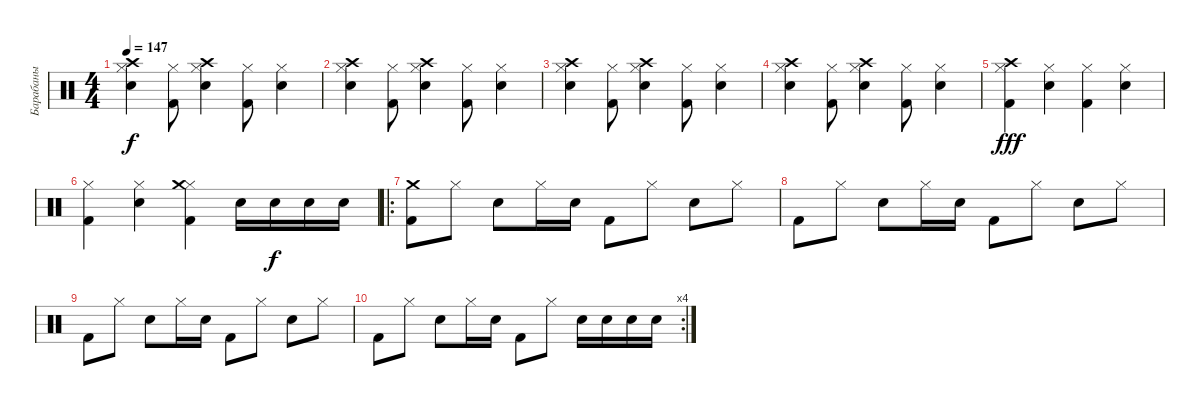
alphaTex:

\track ("Барабаны" "Барабаны") {instrument percussion}
\staff {score}
\articulation defaults
\ts (4 4)
\tempo 147
\clef neutral
\ks c
("Crash high (hit)" "Electric Snare (hit)" "Hi-Hat (closed)").4{dy f} ("Kick (hit) 2" "Hi-Hat (closed)").8 ("Crash high (hit)" "Electric Snare (hit)" "Hi-Hat (closed)").4 ("Kick (hit) 2" "Hi-Hat (closed)").8 ("Electric Snare (hit)" "Hi-Hat (closed)").4 |
("Crash high (hit)" "Electric Snare (hit)" "Hi-Hat (closed)").4 ("Kick (hit) 2" "Hi-Hat (closed)").8 ("Crash high (hit)" "Electric Snare (hit)" "Hi-Hat (closed)").4 ("Kick (hit) 2" "Hi-Hat (closed)").8 ("Electric Snare (hit)" "Hi-Hat (closed)").4 |
("Crash high (hit)" "Electric Snare (hit)" "Hi-Hat (closed)").4 ("Kick (hit) 2" "Hi-Hat (closed)").8 ("Crash high (hit)" "Electric Snare (hit)" "Hi-Hat (closed)").4 ("Kick (hit) 2" "Hi-Hat (closed)").8 ("Electric Snare (hit)" "Hi-Hat (closed)").4 |
("Crash high (hit)" "Electric Snare (hit)" "Hi-Hat (closed)").4 ("Kick (hit) 2" "Hi-Hat (closed)").8 ("Crash high (hit)" "Electric Snare (hit)" "Hi-Hat (closed)").4 ("Kick (hit) 2" "Hi-Hat (closed)").8 ("Electric Snare (hit)" "Hi-Hat (closed)").4 |
("Crash high (hit)" "Kick (hit) 2" "Hi-Hat (closed)").4{dy fff} ("Electric Snare (hit)" "Hi-Hat (closed)").4 ("Kick (hit) 2" "Hi-Hat (closed)").4 ("Electric Snare (hit)" "Hi-Hat (closed)").4 |
("Kick (hit) 2" "Hi-Hat (closed)").4 ("Electric Snare (hit)" "Hi-Hat (closed)").4 ("Kick (hit) 2" "Hi-Hat (closed)" "Crash medium (hit)").4 "Electric Snare (hit)".16 "Electric Snare (hit)".16{dy f} "Electric Snare (hit)".16 "Electric Snare (hit)".16 |
\ro
("Kick (hit) 2" "Crash medium (hit)").8 "Hi-Hat (closed)".8 "Electric Snare (hit)".8 "Hi-Hat (closed)".16 "Electric Snare (hit)".16 "Kick (hit) 2".8 "Hi-Hat (closed)".8 "Electric Snare (hit)".8 "Hi-Hat (closed)".8 |
"Kick (hit) 2".8 "Hi-Hat (closed)".8 "Electric Snare (hit)".8 "Hi-Hat (closed)".16 "Electric Snare (hit)".16 "Kick (hit) 2".8 "Hi-Hat (closed)".8 "Electric Snare (hit)".8 "Hi-Hat (closed)".8 |
"Kick (hit) 2".8 "Hi-Hat (closed)".8 "Electric Snare (hit)".8 "Hi-Hat (closed)".16 "Electric Snare (hit)".16 "Kick (hit) 2".8 "Hi-Hat (closed)".8 "Electric Snare (hit)".8 "Hi-Hat (closed)".8 |
\rc 4 "Kick (hit) 2".8 "Hi-Hat (closed)".8 "Electric Snare (hit)".8 "Hi-Hat (closed)".16 "Electric Snare (hit)".16 "Kick (hit) 2".8 "Hi-Hat (closed)".8 "Electric Snare (hit)".16 "Electric Snare (hit)".16 "Electric Snare (hit)".16 "Electric Snare (hit)".16
